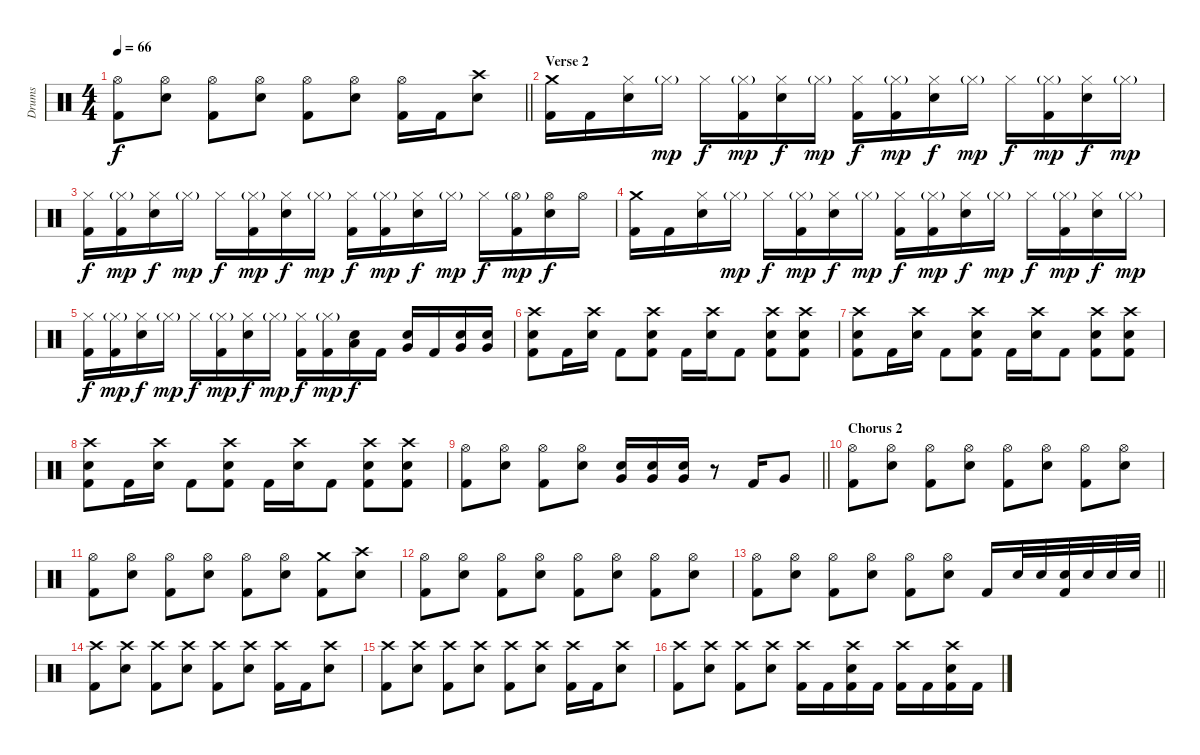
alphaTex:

\track ("Drums" "Drums") {instrument percussion}
\staff {score}
\articulation defaults
\ts (4 4)
\tempo 66
\clef neutral
\barLineRight lightlight
\ks c
("Hi-Hat (open)" "Kick (hit) 2").8{dy f} ("Hi-Hat (open)" "Electric Snare (hit)").8 ("Hi-Hat (open)" "Kick (hit) 2").8 ("Hi-Hat (open)" "Electric Snare (hit)").8 ("Hi-Hat (open)" "Kick (hit) 2").8 ("Hi-Hat (open)" "Electric Snare (hit)").8 ("Hi-Hat (open)" "Kick (hit) 2").16 "Kick (hit) 2".16 ("Crash high (hit)" "Electric Snare (hit)").8 |
\section ("" "Verse 2")
("Crash medium (hit)" "Kick (hit) 2").16 "Kick (hit) 2".16 ("Hi-Hat (closed)" "Electric Snare (hit)").16 "Hi-Hat (closed)"{g}.16{dy mp} "Hi-Hat (closed)".16{dy f} ("Hi-Hat (closed)"{g} "Kick (hit) 2").16{dy mp} ("Hi-Hat (closed)" "Electric Snare (hit)").16{dy f} "Hi-Hat (closed)"{g}.16{dy mp} ("Hi-Hat (closed)" "Kick (hit) 2").16{dy f} ("Hi-Hat (closed)"{g} "Kick (hit) 2").16{dy mp} ("Hi-Hat (closed)" "Electric Snare (hit)").16{dy f} "Hi-Hat (closed)"{g}.16{dy mp} "Hi-Hat (closed)".16{dy f} ("Hi-Hat (closed)"{g} "Kick (hit) 2").16{dy mp} ("Hi-Hat (closed)" "Electric Snare (hit)").16{dy f} "Hi-Hat (closed)"{g}.16{dy mp} |
("Hi-Hat (closed)" "Kick (hit) 2").16{dy f} ("Hi-Hat (closed)"{g} "Kick (hit) 2").16{dy mp} ("Hi-Hat (closed)" "Electric Snare (hit)").16{dy f} "Hi-Hat (closed)"{g}.16{dy mp} "Hi-Hat (closed)".16{dy f} ("Hi-Hat (closed)"{g} "Kick (hit) 2").16{dy mp} ("Hi-Hat (closed)" "Electric Snare (hit)").16{dy f} "Hi-Hat (closed)"{g}.16{dy mp} ("Hi-Hat (closed)" "Kick (hit) 2").16{dy f} ("Hi-Hat (closed)"{g} "Kick (hit) 2").16{dy mp} ("Hi-Hat (closed)" "Electric Snare (hit)").16{dy f} "Hi-Hat (closed)"{g}.16{dy mp} "Hi-Hat (closed)".16{dy f} ("Hi-Hat (open)"{g} "Kick (hit) 2").16{dy mp} ("Hi-Hat (open)" "Electric Snare (hit)").16{dy f} "Hi-Hat (open)".16 |
("Crash medium (hit)" "Kick (hit) 2").16 "Kick (hit) 2".16 ("Hi-Hat (closed)" "Electric Snare (hit)").16 "Hi-Hat (closed)"{g}.16{dy mp} "Hi-Hat (closed)".16{dy f} ("Hi-Hat (closed)"{g} "Kick (hit) 2").16{dy mp} ("Hi-Hat (closed)" "Electric Snare (hit)").16{dy f} "Hi-Hat (closed)"{g}.16{dy mp} ("Hi-Hat (closed)" "Kick (hit) 2").16{dy f} ("Hi-Hat (closed)"{g} "Kick (hit) 2").16{dy mp} ("Hi-Hat (closed)" "Electric Snare (hit)").16{dy f} "Hi-Hat (closed)"{g}.16{dy mp} "Hi-Hat (closed)".16{dy f} ("Hi-Hat (closed)"{g} "Kick (hit) 2").16{dy mp} ("Hi-Hat (closed)" "Electric Snare (hit)").16{dy f} "Hi-Hat (closed)"{g}.16{dy mp} |
("Hi-Hat (closed)" "Kick (hit) 2").16{dy f} ("Hi-Hat (closed)"{g} "Kick (hit) 2").16{dy mp} ("Hi-Hat (closed)" "Electric Snare (hit)").16{dy f} "Hi-Hat (closed)"{g}.16{dy mp} "Hi-Hat (closed)".16{dy f} ("Hi-Hat (closed)"{g} "Kick (hit) 2").16{dy mp} ("Hi-Hat (closed)" "Electric Snare (hit)").16{dy f} "Hi-Hat (closed)"{g}.16{dy mp} ("Hi-Hat (closed)" "Kick (hit) 2").16{dy f} ("Hi-Hat (closed)"{g} "Kick (hit) 2").16{dy mp} ("Low Tom (hit)" "Electric Snare (hit)").16{dy f} "Kick (hit) 2".16 ("Very Low Tom (hit)" "Electric Snare (hit)").16 "Kick (hit) 2".16 ("Very Low Tom (hit)" "Electric Snare (hit)").16 ("Very Low Tom (hit)" "Electric Snare (hit)").16 |
("Crash high (hit)" "Electric Snare (hit)" "Kick (hit) 2").8 "Kick (hit) 2".16 ("Crash high (hit)" "Electric Snare (hit)").16 "Kick (hit) 2".8 ("Crash high (hit)" "Electric Snare (hit)" "Kick (hit) 2").8 "Kick (hit) 2".16 ("Crash high (hit)" "Electric Snare (hit)").16 "Kick (hit) 2".8 ("Crash high (hit)" "Electric Snare (hit)" "Kick (hit) 2").8 ("Crash high (hit)" "Electric Snare (hit)" "Kick (hit) 2").8 |
("Crash high (hit)" "Electric Snare (hit)" "Kick (hit) 2").8 "Kick (hit) 2".16 ("Crash high (hit)" "Electric Snare (hit)").16 "Kick (hit) 2".8 ("Crash high (hit)" "Electric Snare (hit)" "Kick (hit) 2").8 "Kick (hit) 2".16 ("Crash high (hit)" "Electric Snare (hit)").16 "Kick (hit) 2".8 ("Crash high (hit)" "Electric Snare (hit)" "Kick (hit) 2").8 ("Crash high (hit)" "Electric Snare (hit)" "Kick (hit) 2").8 |
("Crash high (hit)" "Electric Snare (hit)" "Kick (hit) 2").8 "Kick (hit) 2".16 ("Crash high (hit)" "Electric Snare (hit)").16 "Kick (hit) 2".8 ("Crash high (hit)" "Electric Snare (hit)" "Kick (hit) 2").8 "Kick (hit) 2".16 ("Crash high (hit)" "Electric Snare (hit)").16 "Kick (hit) 2".8 ("Crash high (hit)" "Electric Snare (hit)" "Kick (hit) 2").8 ("Crash high (hit)" "Electric Snare (hit)" "Kick (hit) 2").8 |
\barLineRight lightlight
("Hi-Hat (open)" "Kick (hit) 2").8 ("Hi-Hat (open)" "Electric Snare (hit)").8 ("Hi-Hat (open)" "Kick (hit) 2").8 ("Hi-Hat (open)" "Electric Snare (hit)").8 ("Very Low Tom (hit)" "Electric Snare (hit)").16 ("Very Low Tom (hit)" "Electric Snare (hit)").16 ("Very Low Tom (hit)" "Electric Snare (hit)").16 r.8 "Kick (hit) 2".16 "Very Low Tom (hit)".8 |
\section ("" "Chorus 2")
("Hi-Hat (open)" "Kick (hit) 2").8 ("Hi-Hat (open)" "Electric Snare (hit)").8 ("Hi-Hat (open)" "Kick (hit) 2").8 ("Hi-Hat (open)" "Electric Snare (hit)").8 ("Hi-Hat (open)" "Kick (hit) 2").8 ("Hi-Hat (open)" "Electric Snare (hit)").8 ("Hi-Hat (open)" "Kick (hit) 2").8 ("Hi-Hat (open)" "Electric Snare (hit)").8 |
("Hi-Hat (open)" "Kick (hit) 2").8 ("Hi-Hat (open)" "Electric Snare (hit)").8 ("Hi-Hat (open)" "Kick (hit) 2").8 ("Hi-Hat (open)" "Electric Snare (hit)").8 ("Hi-Hat (open)" "Kick (hit) 2").8 ("Hi-Hat (open)" "Electric Snare (hit)").8 ("Crash medium (hit)" "Kick (hit) 2").8 ("Crash high (hit)" "Electric Snare (hit)").8 |
("Hi-Hat (open)" "Kick (hit) 2").8 ("Hi-Hat (open)" "Electric Snare (hit)").8 ("Hi-Hat (open)" "Kick (hit) 2").8 ("Hi-Hat (open)" "Electric Snare (hit)").8 ("Hi-Hat (open)" "Kick (hit) 2").8 ("Hi-Hat (open)" "Electric Snare (hit)").8 ("Hi-Hat (open)" "Kick (hit) 2").8 ("Hi-Hat (open)" "Electric Snare (hit)").8 |
\barLineRight lightlight
("Hi-Hat (open)" "Kick (hit) 2").8 ("Hi-Hat (open)" "Electric Snare (hit)").8 ("Hi-Hat (open)" "Kick (hit) 2").8 ("Hi-Hat (open)" "Electric Snare (hit)").8 ("Hi-Hat (open)" "Kick (hit) 2").8 ("Hi-Hat (open)" "Electric Snare (hit)").8 "Kick (hit) 2".16 "Electric Snare (hit)".32 "Electric Snare (hit)".32 ("Electric Snare (hit)" "Kick (hit) 2").32 "Electric Snare (hit)".32 "Electric Snare (hit)".32 "Electric Snare (hit)".32 |
("Crash high (hit)" "Kick (hit) 2").8 ("Crash high (hit)" "Electric Snare (hit)").8 ("Crash high (hit)" "Kick (hit) 2").8 ("Crash high (hit)" "Electric Snare (hit)").8 ("Crash high (hit)" "Kick (hit) 2").8 ("Crash high (hit)" "Electric Snare (hit)").8 ("Crash high (hit)" "Kick (hit) 2").16 "Kick (hit) 2".16 ("Crash high (hit)" "Electric Snare (hit)").8 |
("Crash high (hit)" "Kick (hit) 2").8 ("Crash high (hit)" "Electric Snare (hit)").8 ("Crash high (hit)" "Kick (hit) 2").8 ("Crash high (hit)" "Electric Snare (hit)").8 ("Crash high (hit)" "Kick (hit) 2").8 ("Crash high (hit)" "Electric Snare (hit)").8 ("Crash high (hit)" "Kick (hit) 2").16 "Kick (hit) 2".16 ("Crash high (hit)" "Electric Snare (hit)").8 |
("Crash high (hit)" "Kick (hit) 2").8 ("Crash high (hit)" "Electric Snare (hit)").8 ("Crash high (hit)" "Kick (hit) 2").8 ("Crash high (hit)" "Electric Snare (hit)").8 ("Crash high (hit)" "Kick (hit) 2").16 "Kick (hit) 2".16 ("Crash high (hit)" "Electric Snare (hit)" "Kick (hit) 2").16 "Kick (hit) 2".16 ("Crash high (hit)" "Kick (hit) 2").16 "Kick (hit) 2".16 ("Crash high (hit)" "Electric Snare (hit)" "Kick (hit) 2").16 "Kick (hit) 2".16
